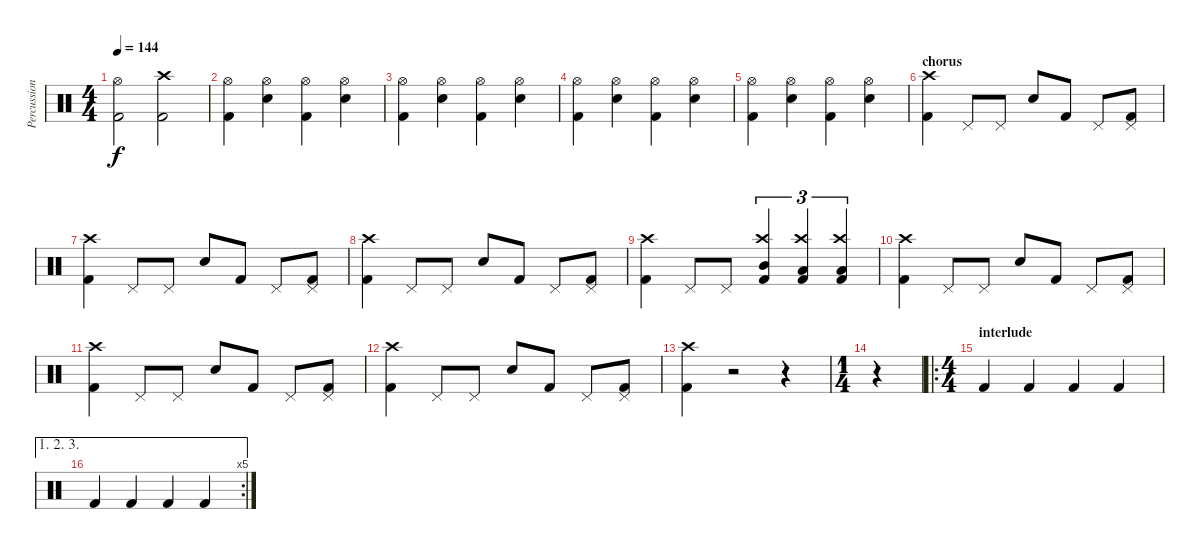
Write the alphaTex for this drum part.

\track ("Percussion" "Percussion") {instrument percussion}
\staff {score}
\articulation defaults
\ts (4 4)
\tempo 144
\clef neutral
\ks c
("Hi-Hat (open)" "Kick (hit) 2").2{dy f} ("Crash high (hit)" "Kick (hit) 2").2 |
("Hi-Hat (open)" "Kick (hit) 2").4 ("Hi-Hat (open)" "Electric Snare (hit)").4 ("Hi-Hat (open)" "Kick (hit) 2").4 ("Hi-Hat (open)" "Electric Snare (hit)").4 |
("Hi-Hat (open)" "Kick (hit) 2").4 ("Hi-Hat (open)" "Electric Snare (hit)").4 ("Hi-Hat (open)" "Kick (hit) 2").4 ("Hi-Hat (open)" "Electric Snare (hit)").4 |
("Hi-Hat (open)" "Kick (hit) 2").4 ("Hi-Hat (open)" "Electric Snare (hit)").4 ("Hi-Hat (open)" "Kick (hit) 2").4 ("Hi-Hat (open)" "Electric Snare (hit)").4 |
("Hi-Hat (open)" "Kick (hit) 2").4 ("Hi-Hat (open)" "Electric Snare (hit)").4 ("Hi-Hat (open)" "Kick (hit) 2").4 ("Hi-Hat (open)" "Electric Snare (hit)").4 |
\section ("" "chorus")
("Crash high (hit)" "Kick (hit) 2").4 "Pedal Hi-Hat (hit)".8 "Pedal Hi-Hat (hit)".8 "Electric Snare (hit)".8 "Kick (hit) 2".8 "Pedal Hi-Hat (hit)".8 ("Pedal Hi-Hat (hit)" "Kick (hit) 2").8 |
("Crash high (hit)" "Kick (hit) 2").4 "Pedal Hi-Hat (hit)".8 "Pedal Hi-Hat (hit)".8 "Electric Snare (hit)".8 "Kick (hit) 2".8 "Pedal Hi-Hat (hit)".8 ("Pedal Hi-Hat (hit)" "Kick (hit) 2").8 |
("Crash high (hit)" "Kick (hit) 2").4 "Pedal Hi-Hat (hit)".8 "Pedal Hi-Hat (hit)".8 "Electric Snare (hit)".8 "Kick (hit) 2".8 "Pedal Hi-Hat (hit)".8 ("Pedal Hi-Hat (hit)" "Kick (hit) 2").8 |
("Crash high (hit)" "Kick (hit) 2").4 "Pedal Hi-Hat (hit)".8 "Pedal Hi-Hat (hit)".8 ("Crash high (hit)" "Mid Tom (hit)" "Kick (hit) 2").4{tu (3 2)} ("Crash high (hit)" "Low Tom (hit)" "Kick (hit) 2").4{tu (3 2)} ("Crash high (hit)" "Low Floor Tom (hit)" "Kick (hit) 2").4{tu (3 2)} |
("Crash high (hit)" "Kick (hit) 2").4 "Pedal Hi-Hat (hit)".8 "Pedal Hi-Hat (hit)".8 "Electric Snare (hit)".8 "Kick (hit) 2".8 "Pedal Hi-Hat (hit)".8 ("Pedal Hi-Hat (hit)" "Kick (hit) 2").8 |
("Crash high (hit)" "Kick (hit) 2").4 "Pedal Hi-Hat (hit)".8 "Pedal Hi-Hat (hit)".8 "Electric Snare (hit)".8 "Kick (hit) 2".8 "Pedal Hi-Hat (hit)".8 ("Pedal Hi-Hat (hit)" "Kick (hit) 2").8 |
("Crash high (hit)" "Kick (hit) 2").4 "Pedal Hi-Hat (hit)".8 "Pedal Hi-Hat (hit)".8 "Electric Snare (hit)".8 "Kick (hit) 2".8 "Pedal Hi-Hat (hit)".8 ("Pedal Hi-Hat (hit)" "Kick (hit) 2").8 |
("Crash high (hit)" "Kick (hit) 2").4 r.2 r.4 |
\ts (1 4)
r.4 |
\ro
\ts (4 4)
\section ("" "interlude")
"Kick (hit) 2".4 "Kick (hit) 2".4 "Kick (hit) 2".4 "Kick (hit) 2".4 |
\ae (1 2 3)
\rc 5 "Kick (hit) 2".4 "Kick (hit) 2".4 "Kick (hit) 2".4 "Kick (hit) 2".4
